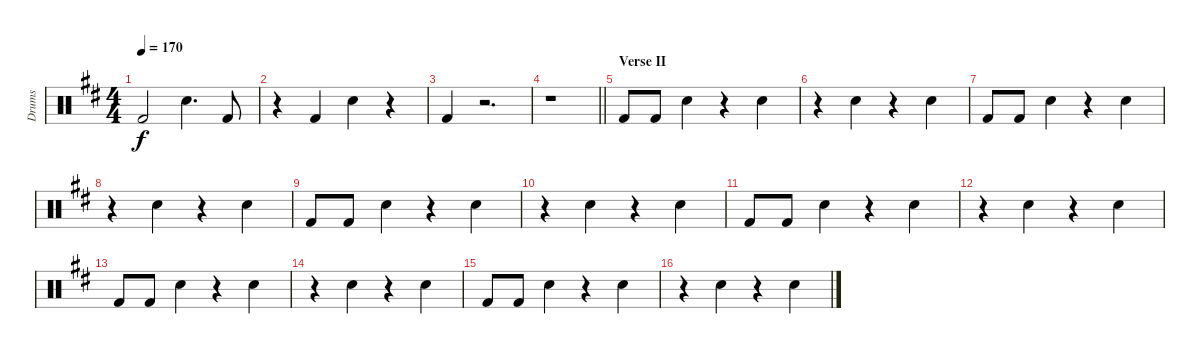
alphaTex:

\track ("Drums" "Drums") {instrument percussion}
\staff {score}
\articulation defaults
\ts (4 4)
\tempo 170
\clef neutral
\ks d "Kick (hit) 2".2{dy f} "Electric Snare (hit)".4{d} "Kick (hit) 2".8
|
r.4 "Kick (hit) 2".4 "Electric Snare (hit)".4 r.4 |
"Kick (hit) 2".4 r.2{d} |
\barLineRight lightlight
r.1 |
\section ("" "Verse II")
"Kick (hit) 2".8 "Kick (hit) 2".8 "Electric Snare (hit)".4 r.4 "Electric Snare (hit)".4 |
r.4 "Electric Snare (hit)".4 r.4 "Electric Snare (hit)".4 |
"Kick (hit) 2".8 "Kick (hit) 2".8 "Electric Snare (hit)".4 r.4 "Electric Snare (hit)".4 |
r.4 "Electric Snare (hit)".4 r.4 "Electric Snare (hit)".4 |
"Kick (hit) 2".8 "Kick (hit) 2".8 "Electric Snare (hit)".4 r.4 "Electric Snare (hit)".4 |
r.4 "Electric Snare (hit)".4 r.4 "Electric Snare (hit)".4 |
"Kick (hit) 2".8 "Kick (hit) 2".8 "Electric Snare (hit)".4 r.4 "Electric Snare (hit)".4 |
r.4 "Electric Snare (hit)".4 r.4 "Electric Snare (hit)".4 |
"Kick (hit) 2".8 "Kick (hit) 2".8 "Electric Snare (hit)".4 r.4 "Electric Snare (hit)".4 |
r.4 "Electric Snare (hit)".4 r.4 "Electric Snare (hit)".4 |
"Kick (hit) 2".8 "Kick (hit) 2".8 "Electric Snare (hit)".4 r.4 "Electric Snare (hit)".4 |
r.4 "Electric Snare (hit)".4 r.4 "Electric Snare (hit)".4
